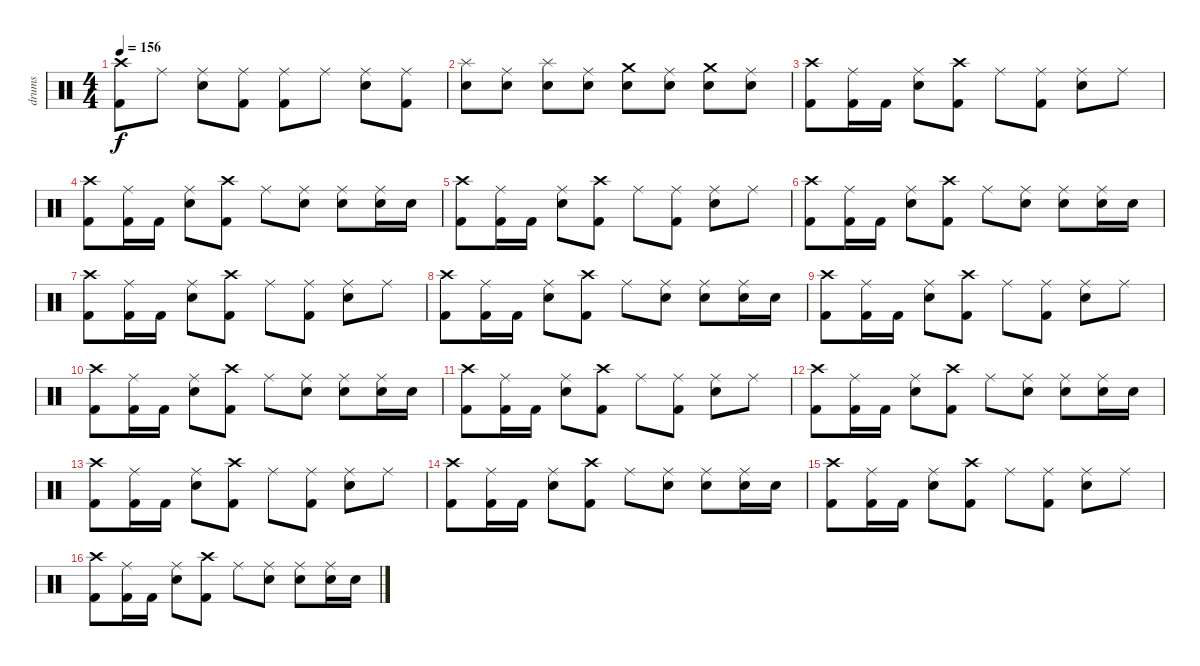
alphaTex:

\track ("drums" "drums") {instrument percussion}
\staff {score}
\articulation defaults
\ts (4 4)
\tempo 156
\clef neutral
\ks c
("Kick (hit) 2" "Crash high (hit)").8{dy f} "Ride (middle)".8 ("Electric Snare (hit)" "Ride (middle)").8 ("Ride (middle)" "Kick (hit) 2").8 ("Kick (hit) 2" "Ride (middle)").8 "Ride (middle)".8 ("Electric Snare (hit)" "Ride (middle)").8 ("Ride (middle)" "Kick (hit) 2").8 |
("Electric Snare (hit)" "Splash (hit)").8 ("Ride (middle)" "Electric Snare (hit)").8 ("Electric Snare (hit)" "Splash (hit)").8 ("Ride (middle)" "Electric Snare (hit)").8 ("Crash medium (hit)" "Electric Snare (hit)").8 ("Ride (middle)" "Electric Snare (hit)").8 ("Electric Snare (hit)" "Crash medium (hit)").8 ("Ride (middle)" "Electric Snare (hit)").8 |
("Kick (hit) 2" "Crash high (hit)").8 ("Ride (middle)" "Kick (hit) 2").16 "Kick (hit) 2".16 ("Electric Snare (hit)" "Ride (middle)").8 ("Crash high (hit)" "Kick (hit) 2").8 "Ride (middle)".8 ("Ride (middle)" "Kick (hit) 2").8 ("Electric Snare (hit)" "Ride (middle)").8 "Ride (middle)".8 |
("Kick (hit) 2" "Crash high (hit)").8 ("Ride (middle)" "Kick (hit) 2").16 "Kick (hit) 2".16 ("Electric Snare (hit)" "Ride (middle)").8 ("Crash high (hit)" "Kick (hit) 2").8 "Ride (middle)".8 ("Ride (middle)" "Electric Snare (hit)").8 ("Electric Snare (hit)" "Ride (middle)").8 ("Ride (middle)" "Electric Snare (hit)").16 "Electric Snare (hit)".16 |
("Kick (hit) 2" "Crash high (hit)").8 ("Ride (middle)" "Kick (hit) 2").16 "Kick (hit) 2".16 ("Electric Snare (hit)" "Ride (middle)").8 ("Crash high (hit)" "Kick (hit) 2").8 "Ride (middle)".8 ("Ride (middle)" "Kick (hit) 2").8 ("Electric Snare (hit)" "Ride (middle)").8 "Ride (middle)".8 |
("Kick (hit) 2" "Crash high (hit)").8 ("Ride (middle)" "Kick (hit) 2").16 "Kick (hit) 2".16 ("Electric Snare (hit)" "Ride (middle)").8 ("Crash high (hit)" "Kick (hit) 2").8 "Ride (middle)".8 ("Ride (middle)" "Electric Snare (hit)").8 ("Electric Snare (hit)" "Ride (middle)").8 ("Ride (middle)" "Electric Snare (hit)").16 "Electric Snare (hit)".16 |
("Kick (hit) 2" "Crash high (hit)").8 ("Ride (middle)" "Kick (hit) 2").16 "Kick (hit) 2".16 ("Electric Snare (hit)" "Ride (middle)").8 ("Crash high (hit)" "Kick (hit) 2").8 "Ride (middle)".8 ("Ride (middle)" "Kick (hit) 2").8 ("Electric Snare (hit)" "Ride (middle)").8 "Ride (middle)".8 |
("Kick (hit) 2" "Crash high (hit)").8 ("Ride (middle)" "Kick (hit) 2").16 "Kick (hit) 2".16 ("Electric Snare (hit)" "Ride (middle)").8 ("Crash high (hit)" "Kick (hit) 2").8 "Ride (middle)".8 ("Ride (middle)" "Electric Snare (hit)").8 ("Electric Snare (hit)" "Ride (middle)").8 ("Ride (middle)" "Electric Snare (hit)").16 "Electric Snare (hit)".16 |
("Kick (hit) 2" "Crash high (hit)").8 ("Ride (middle)" "Kick (hit) 2").16 "Kick (hit) 2".16 ("Electric Snare (hit)" "Ride (middle)").8 ("Crash high (hit)" "Kick (hit) 2").8 "Ride (middle)".8 ("Ride (middle)" "Kick (hit) 2").8 ("Electric Snare (hit)" "Ride (middle)").8 "Ride (middle)".8 |
("Kick (hit) 2" "Crash high (hit)").8 ("Ride (middle)" "Kick (hit) 2").16 "Kick (hit) 2".16 ("Electric Snare (hit)" "Ride (middle)").8 ("Crash high (hit)" "Kick (hit) 2").8 "Ride (middle)".8 ("Ride (middle)" "Electric Snare (hit)").8 ("Electric Snare (hit)" "Ride (middle)").8 ("Ride (middle)" "Electric Snare (hit)").16 "Electric Snare (hit)".16 |
("Kick (hit) 2" "Crash high (hit)").8 ("Ride (middle)" "Kick (hit) 2").16 "Kick (hit) 2".16 ("Electric Snare (hit)" "Ride (middle)").8 ("Crash high (hit)" "Kick (hit) 2").8 "Ride (middle)".8 ("Ride (middle)" "Kick (hit) 2").8 ("Electric Snare (hit)" "Ride (middle)").8 "Ride (middle)".8 |
("Kick (hit) 2" "Crash high (hit)").8 ("Ride (middle)" "Kick (hit) 2").16 "Kick (hit) 2".16 ("Electric Snare (hit)" "Ride (middle)").8 ("Crash high (hit)" "Kick (hit) 2").8 "Ride (middle)".8 ("Ride (middle)" "Electric Snare (hit)").8 ("Electric Snare (hit)" "Ride (middle)").8 ("Ride (middle)" "Electric Snare (hit)").16 "Electric Snare (hit)".16 |
("Kick (hit) 2" "Crash high (hit)").8 ("Ride (middle)" "Kick (hit) 2").16 "Kick (hit) 2".16 ("Electric Snare (hit)" "Ride (middle)").8 ("Crash high (hit)" "Kick (hit) 2").8 "Ride (middle)".8 ("Ride (middle)" "Kick (hit) 2").8 ("Electric Snare (hit)" "Ride (middle)").8 "Ride (middle)".8 |
("Kick (hit) 2" "Crash high (hit)").8 ("Ride (middle)" "Kick (hit) 2").16 "Kick (hit) 2".16 ("Electric Snare (hit)" "Ride (middle)").8 ("Crash high (hit)" "Kick (hit) 2").8 "Ride (middle)".8 ("Ride (middle)" "Electric Snare (hit)").8 ("Electric Snare (hit)" "Ride (middle)").8 ("Ride (middle)" "Electric Snare (hit)").16 "Electric Snare (hit)".16 |
("Kick (hit) 2" "Crash high (hit)").8 ("Ride (middle)" "Kick (hit) 2").16 "Kick (hit) 2".16 ("Electric Snare (hit)" "Ride (middle)").8 ("Crash high (hit)" "Kick (hit) 2").8 "Ride (middle)".8 ("Ride (middle)" "Kick (hit) 2").8 ("Electric Snare (hit)" "Ride (middle)").8 "Ride (middle)".8 |
("Kick (hit) 2" "Crash high (hit)").8 ("Ride (middle)" "Kick (hit) 2").16 "Kick (hit) 2".16 ("Electric Snare (hit)" "Ride (middle)").8 ("Crash high (hit)" "Kick (hit) 2").8 "Ride (middle)".8 ("Ride (middle)" "Electric Snare (hit)").8 ("Electric Snare (hit)" "Ride (middle)").8 ("Ride (middle)" "Electric Snare (hit)").16 "Electric Snare (hit)".16
